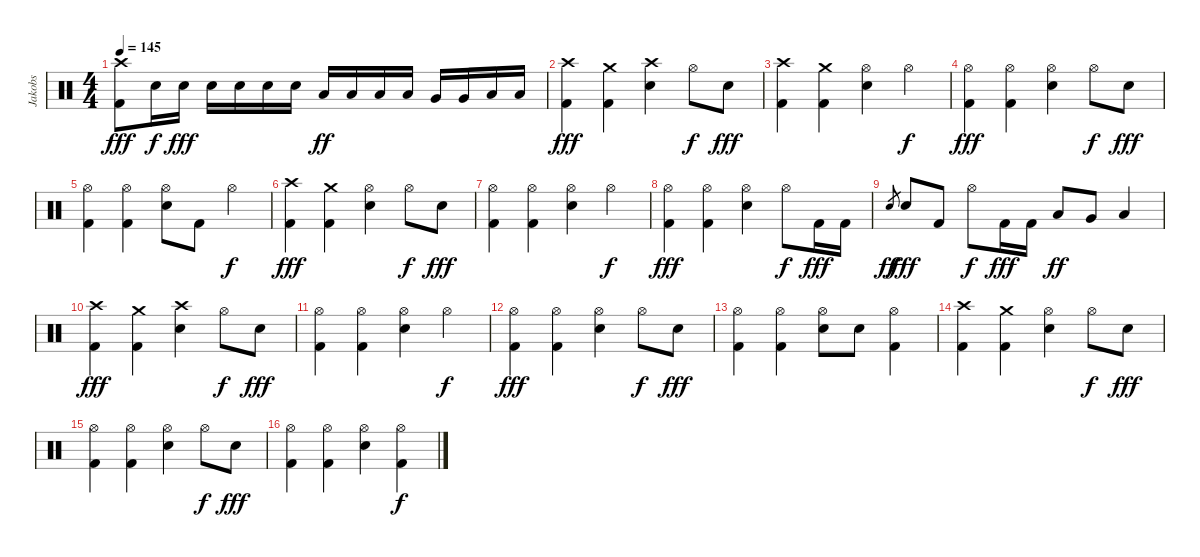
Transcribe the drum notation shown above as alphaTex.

\track ("Jakobs" "Jakobs") {instrument percussion}
\staff {score}
\articulation defaults
\ts (4 4)
\tempo 145
\clef neutral
\ks c
("Crash high (hit)" "Kick (hit) 2").8{dy fff} "Snare (hit) 2".16{dy f} "Snare (hit) 2".16{dy fff} "Snare (hit) 2".16 "Snare (hit) 2".16 "Snare (hit) 2".16 "Snare (hit) 2".16 "Low Tom (hit)".16{dy ff} "Low Tom (hit)".16 "Low Tom (hit)".16 "Low Tom (hit)".16 "Very Low Tom (hit)".16 "Very Low Tom (hit)".16 "Low Floor Tom (hit)".16 "Low Floor Tom (hit)".16 |
("Crash high (hit)" "Kick (hit) 2").4{dy fff} ("Crash medium (hit)" "Kick (hit) 2").4 ("Crash high (hit)" "Snare (hit) 2").4 "Hi-Hat (open)".8{dy f} "Snare (hit) 2".8{dy fff} |
("Crash high (hit)" "Kick (hit) 2").4 ("Crash medium (hit)" "Kick (hit) 2").4 ("Hi-Hat (open)" "Snare (hit) 2").4 "Hi-Hat (open)".4{dy f} |
("Hi-Hat (open)" "Kick (hit) 2").4{dy fff} ("Hi-Hat (open)" "Kick (hit) 2").4 ("Hi-Hat (open)" "Snare (hit) 2").4 "Hi-Hat (open)".8{dy f} "Snare (hit) 2".8{dy fff} |
("Hi-Hat (open)" "Kick (hit) 2").4 ("Hi-Hat (open)" "Kick (hit) 2").4 ("Hi-Hat (open)" "Snare (hit) 2").8 "Kick (hit) 2".8 "Hi-Hat (open)".4{dy f} |
("Crash high (hit)" "Kick (hit) 2").4{dy fff} ("Crash medium (hit)" "Kick (hit) 2").4 ("Hi-Hat (open)" "Snare (hit) 2").4 "Hi-Hat (open)".8{dy f} "Snare (hit) 2".8{dy fff} |
("Hi-Hat (open)" "Kick (hit) 2").4 ("Hi-Hat (open)" "Kick (hit) 2").4 ("Hi-Hat (open)" "Snare (hit) 2").4 "Hi-Hat (open)".4{dy f} |
("Hi-Hat (open)" "Kick (hit) 2").4{dy fff} ("Hi-Hat (open)" "Kick (hit) 2").4 ("Hi-Hat (open)" "Snare (hit) 2").4 "Hi-Hat (open)".8{dy f} "Kick (hit) 2".16{dy fff} "Kick (hit) 2".16 |
"Snare (hit) 2".8{gr dy ff} "Snare (hit) 2".8{dy fff} "Kick (hit) 2".8 "Hi-Hat (open)".8{dy f} "Kick (hit) 2".16{dy fff} "Kick (hit) 2".16 "Low Tom (hit)".8{dy ff} "Very Low Tom (hit)".8 "Low Floor Tom (hit)".4 |
("Crash high (hit)" "Kick (hit) 2").4{dy fff} ("Crash medium (hit)" "Kick (hit) 2").4 ("Crash high (hit)" "Snare (hit) 2").4 "Hi-Hat (open)".8{dy f} "Snare (hit) 2".8{dy fff} |
("Hi-Hat (open)" "Kick (hit) 2").4 ("Hi-Hat (open)" "Kick (hit) 2").4 ("Hi-Hat (open)" "Snare (hit) 2").4 "Hi-Hat (open)".4{dy f} |
("Hi-Hat (open)" "Kick (hit) 2").4{dy fff} ("Hi-Hat (open)" "Kick (hit) 2").4 ("Hi-Hat (open)" "Snare (hit) 2").4 "Hi-Hat (open)".8{dy f} "Snare (hit) 2".8{dy fff} |
("Hi-Hat (open)" "Kick (hit) 2").4 ("Hi-Hat (open)" "Kick (hit) 2").4 ("Hi-Hat (open)" "Snare (hit) 2").8 "Snare (hit) 2".8 ("Hi-Hat (open)" "Kick (hit) 2").4 |
("Crash high (hit)" "Kick (hit) 2").4 ("Crash medium (hit)" "Kick (hit) 2").4 ("Hi-Hat (open)" "Snare (hit) 2").4 "Hi-Hat (open)".8{dy f} "Snare (hit) 2".8{dy fff} |
("Hi-Hat (open)" "Kick (hit) 2").4 ("Hi-Hat (open)" "Kick (hit) 2").4 ("Hi-Hat (open)" "Snare (hit) 2").4 "Hi-Hat (open)".8{dy f} "Snare (hit) 2".8{dy fff} |
("Hi-Hat (open)" "Kick (hit) 2").4 ("Hi-Hat (open)" "Kick (hit) 2").4 ("Hi-Hat (open)" "Snare (hit) 2").4 ("Hi-Hat (open)" "Kick (hit) 2").4{dy f}
